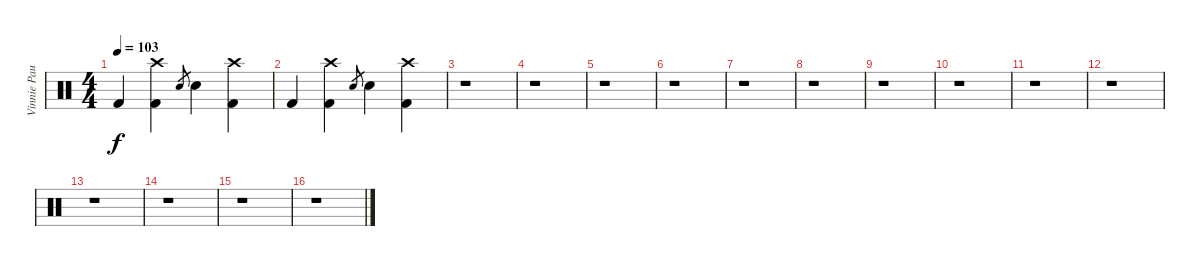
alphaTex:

\track ("Vinnie Paul" "Vinnie Pau") {instrument percussion}
\staff {score}
\articulation defaults
\ts (4 4)
\tempo 103
\clef neutral
\ks c "Kick (hit) 2".4{dy f}
("Crash high (hit)" "Kick (hit) 2").4 "Electric Snare (hit)".8{gr} "Electric Snare (hit)".4 ("Crash high (hit)" "Kick (hit) 2").4 |
"Kick (hit) 2".4 ("Crash high (hit)" "Kick (hit) 2").4 "Electric Snare (hit)".8{gr} "Electric Snare (hit)".4 ("Crash high (hit)" "Kick (hit) 2").4 |
r.1 |
r.1 |
r.1 |
r.1 |
r.1 |
r.1 |
r.1 |
r.1 |
r.1 |
r.1 |
r.1 |
r.1 |
r.1 |
r.1
